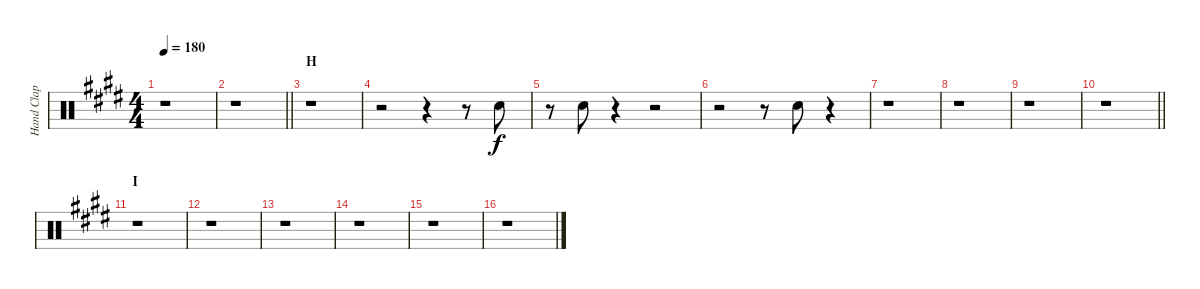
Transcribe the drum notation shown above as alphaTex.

\track ("Hand Clap" "Hand Clap") {instrument percussion}
\staff {score}
\articulation defaults
\ts (4 4)
\tempo 180
\clef neutral
\ks e
r.1{dy f} |
\barLineRight lightlight
r.1 |
\section ("" "H")
r.1 |
r.2 r.4 r.8 "Hand Clap (hit)".8 |
r.8 "Hand Clap (hit)".8 r.4 r.2 |
r.2 r.8 "Hand Clap (hit)".8 r.4 |
r.1 |
r.1 |
r.1 |
\barLineRight lightlight
r.1 |
\section ("" "I")
r.1 |
r.1 |
r.1 |
r.1 |
r.1 |
r.1
